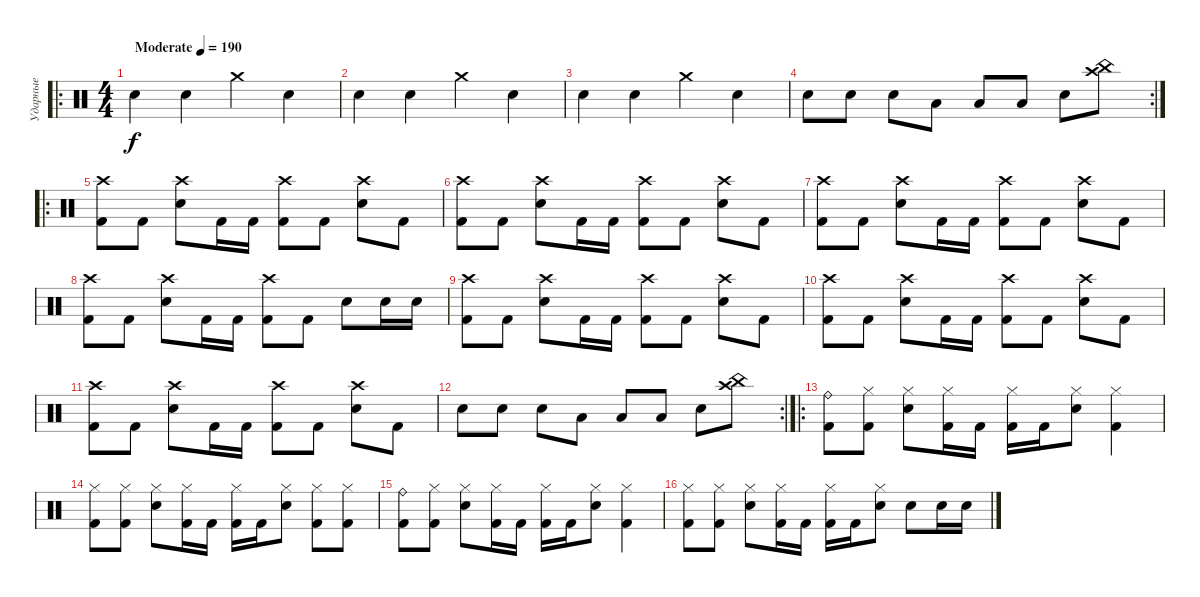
\track ("Ударные" "Ударные") {instrument percussion}
\staff {score}
\articulation defaults
\ro
\ts (4 4)
\tempo (190 "Moderate")
\clef neutral
\ks c "Hand Clap (hit)".4{dy f} "Hand Clap (hit)".4 "Crash medium (hit)".4 "Hand Clap (hit)".4
|
"Hand Clap (hit)".4 "Hand Clap (hit)".4 "Crash medium (hit)".4 "Hand Clap (hit)".4 |
"Hand Clap (hit)".4 "Hand Clap (hit)".4 "Crash medium (hit)".4 "Hand Clap (hit)".4 |
\rc 2 "Electric Snare (hit)".8 "Electric Snare (hit)".8 "Electric Snare (hit)".8 "Low Floor Tom (hit)".8 "Low Floor Tom (hit)".8 "Low Floor Tom (hit)".8 "Electric Snare (hit)".8
("China (hit)" "Crash high (hit)").8 |
\ro
("Crash high (hit)" "Kick (hit) 2").8 "Kick (hit) 2".8 ("Electric Snare (hit)" "Crash high (hit)").8 "Kick (hit) 2".16 "Kick (hit) 2".16 ("Kick (hit) 2" "Crash high (hit)").8 "Kick (hit) 2".8 ("Electric Snare (hit)" "Crash high (hit)").8 "Kick (hit) 2".8 |
("Crash high (hit)" "Kick (hit) 2").8 "Kick (hit) 2".8 ("Electric Snare (hit)" "Crash high (hit)").8 "Kick (hit) 2".16 "Kick (hit) 2".16 ("Kick (hit) 2" "Crash high (hit)").8 "Kick (hit) 2".8 ("Electric Snare (hit)" "Crash high (hit)").8 "Kick (hit) 2".8 |
("Crash high (hit)" "Kick (hit) 2").8 "Kick (hit) 2".8 ("Electric Snare (hit)" "Crash high (hit)").8 "Kick (hit) 2".16 "Kick (hit) 2".16 ("Kick (hit) 2" "Crash high (hit)").8 "Kick (hit) 2".8 ("Electric Snare (hit)" "Crash high (hit)").8 "Kick (hit) 2".8 |
("Crash high (hit)" "Kick (hit) 2").8 "Kick (hit) 2".8 ("Electric Snare (hit)" "Crash high (hit)").8 "Kick (hit) 2".16 "Kick (hit) 2".16 ("Kick (hit) 2" "Crash high (hit)").8 "Kick (hit) 2".8 "Electric Snare (hit)".8 "Electric Snare (hit)".16 "Electric Snare (hit)".16 |
("Crash high (hit)" "Kick (hit) 2").8 "Kick (hit) 2".8 ("Electric Snare (hit)" "Crash high (hit)").8 "Kick (hit) 2".16 "Kick (hit) 2".16 ("Kick (hit) 2" "Crash high (hit)").8 "Kick (hit) 2".8 ("Electric Snare (hit)" "Crash high (hit)").8 "Kick (hit) 2".8 |
("Crash high (hit)" "Kick (hit) 2").8 "Kick (hit) 2".8 ("Electric Snare (hit)" "Crash high (hit)").8 "Kick (hit) 2".16 "Kick (hit) 2".16 ("Kick (hit) 2" "Crash high (hit)").8 "Kick (hit) 2".8 ("Electric Snare (hit)" "Crash high (hit)").8 "Kick (hit) 2".8 |
("Crash high (hit)" "Kick (hit) 2").8 "Kick (hit) 2".8 ("Electric Snare (hit)" "Crash high (hit)").8 "Kick (hit) 2".16 "Kick (hit) 2".16 ("Kick (hit) 2" "Crash high (hit)").8 "Kick (hit) 2".8 ("Electric Snare (hit)" "Crash high (hit)").8 "Kick (hit) 2".8 |
\rc 2 "Electric Snare (hit)".8 "Electric Snare (hit)".8 "Electric Snare (hit)".8 "Low Floor Tom (hit)".8 "Low Floor Tom (hit)".8 "Low Floor Tom (hit)".8 "Electric Snare (hit)".8
("China (hit)" "Crash high (hit)").8 |
\ro
("Ride (bell)" "Kick (hit) 2").8 ("Hi-Hat (closed)" "Kick (hit) 2").8 ("Electric Snare (hit)" "Hi-Hat (closed)").8 ("Hi-Hat (closed)" "Kick (hit) 2").16 "Kick (hit) 2".16 ("Kick (hit) 2" "Hi-Hat (closed)").16 "Kick (hit) 2".16 ("Hi-Hat (closed)" "Snare (hit) 2").8 ("Hi-Hat (closed)" "Kick (hit) 2").4 |
("Hi-Hat (closed)" "Kick (hit) 2").8 ("Hi-Hat (closed)" "Kick (hit) 2").8 ("Electric Snare (hit)" "Hi-Hat (closed)").8 ("Hi-Hat (closed)" "Kick (hit) 2").16 "Kick (hit) 2".16 ("Kick (hit) 2" "Hi-Hat (closed)").16 "Kick (hit) 2".16 ("Hi-Hat (closed)" "Snare (hit) 2").8 ("Hi-Hat (closed)" "Kick (hit) 2").8 ("Hi-Hat (closed)" "Kick (hit) 2").8 |
("Ride (bell)" "Kick (hit) 2").8 ("Hi-Hat (closed)" "Kick (hit) 2").8 ("Electric Snare (hit)" "Hi-Hat (closed)").8 ("Hi-Hat (closed)" "Kick (hit) 2").16 "Kick (hit) 2".16 ("Kick (hit) 2" "Hi-Hat (closed)").16 "Kick (hit) 2".16 ("Hi-Hat (closed)" "Snare (hit) 2").8 ("Hi-Hat (closed)" "Kick (hit) 2").4 |
("Hi-Hat (closed)" "Kick (hit) 2").8 ("Hi-Hat (closed)" "Kick (hit) 2").8 ("Electric Snare (hit)" "Hi-Hat (closed)").8 ("Hi-Hat (closed)" "Kick (hit) 2").16 "Kick (hit) 2".16 ("Kick (hit) 2" "Hi-Hat (closed)").16 "Kick (hit) 2".16 ("Hi-Hat (closed)" "Snare (hit) 2").8 "Electric Snare (hit)".8 "Electric Snare (hit)".16 "Electric Snare (hit)".16
